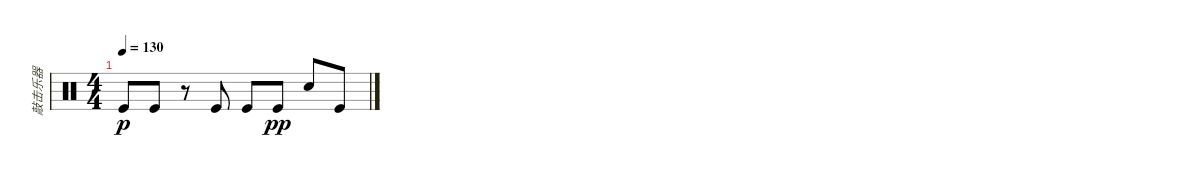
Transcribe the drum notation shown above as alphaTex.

\track ("敲击乐器" "敲击乐器") {instrument percussion}
\staff {score}
\articulation defaults
\ts (4 4)
\tempo 130
\clef neutral
\ks c "Kick (hit)".8{dy p} "Kick (hit)".8
r.8 "Kick (hit)".8 "Kick (hit)".8 "Kick (hit)".8{dy pp} "Snare (hit) 2".8 "Kick (hit)".8
